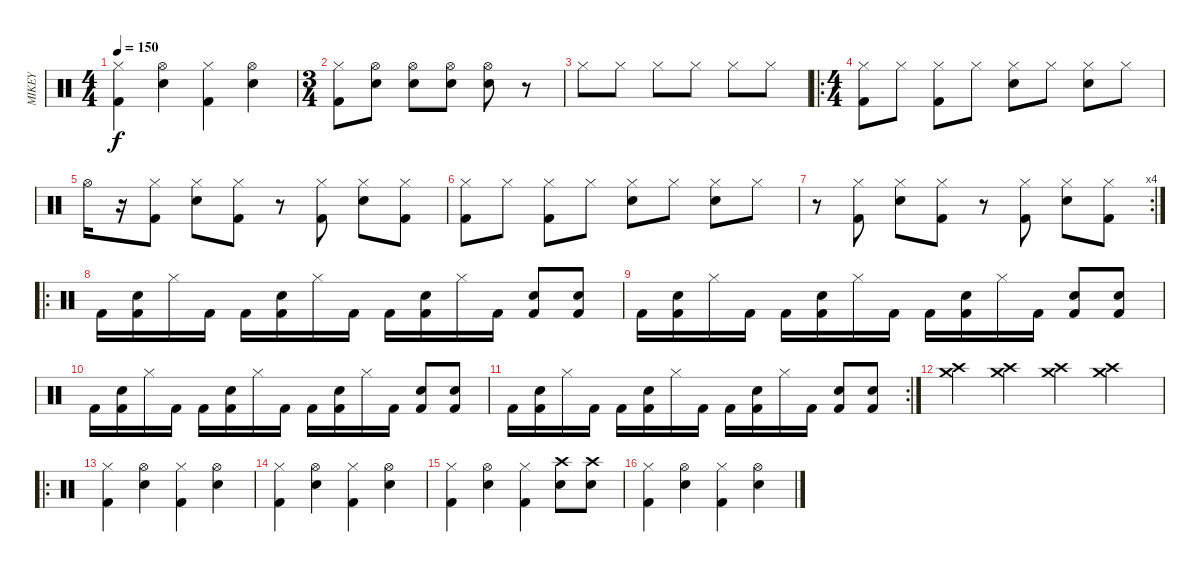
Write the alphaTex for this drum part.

\track ("MIKEY" "MIKEY") {instrument percussion}
\staff {score}
\articulation defaults
\ts (4 4)
\tempo 150
\clef neutral
\ks c
("Hi-Hat (closed)" "Kick (hit) 2").4{dy f} ("Hi-Hat (open)" "Snare (hit) 2").4 ("Hi-Hat (closed)" "Kick (hit) 2").4 ("Hi-Hat (open)" "Snare (hit) 2").4 |
\ts (3 4)
("Hi-Hat (closed)" "Kick (hit) 2").8 ("Hi-Hat (open)" "Snare (hit) 2").8 ("Hi-Hat (open)" "Snare (hit) 2").8 ("Hi-Hat (open)" "Snare (hit) 2").8 ("Hi-Hat (open)" "Snare (hit) 2").8 r.8 |
"Hi-Hat (closed)".8 "Hi-Hat (closed)".8 "Hi-Hat (closed)".8 "Hi-Hat (closed)".8 "Hi-Hat (closed)".8 "Hi-Hat (closed)".8 |
\ro
\ts (4 4)
("Hi-Hat (closed)" "Kick (hit) 2").8 "Hi-Hat (closed)".8 ("Hi-Hat (closed)" "Kick (hit) 2").8 "Hi-Hat (closed)".8 ("Hi-Hat (closed)" "Snare (hit) 2").8 "Hi-Hat (closed)".8 ("Hi-Hat (closed)" "Snare (hit) 2").8 "Hi-Hat (closed)".8 |
"Hi-Hat (open)".16 r.16 ("Hi-Hat (closed)" "Kick (hit) 2").8 ("Hi-Hat (closed)" "Snare (hit) 2").8 ("Hi-Hat (closed)" "Kick (hit) 2").8 r.8 ("Hi-Hat (closed)" "Kick (hit) 2").8 ("Hi-Hat (closed)" "Snare (hit) 2").8 ("Hi-Hat (closed)" "Kick (hit) 2").8 |
("Hi-Hat (closed)" "Kick (hit) 2").8 "Hi-Hat (closed)".8 ("Hi-Hat (closed)" "Kick (hit) 2").8 "Hi-Hat (closed)".8 ("Hi-Hat (closed)" "Snare (hit) 2").8 "Hi-Hat (closed)".8 ("Hi-Hat (closed)" "Snare (hit) 2").8 "Hi-Hat (closed)".8 |
\rc 4
r.8 ("Hi-Hat (closed)" "Kick (hit) 2").8 ("Hi-Hat (closed)" "Snare (hit) 2").8 ("Hi-Hat (closed)" "Kick (hit) 2").8 r.8 ("Hi-Hat (closed)" "Kick (hit) 2").8 ("Hi-Hat (closed)" "Snare (hit) 2").8 ("Hi-Hat (closed)" "Kick (hit) 2").8 |
\ro "Kick (hit) 2".16
("Electric Snare (hit)" "Kick (hit) 2").16 "Hi-Hat (closed)".16 "Kick (hit) 2".16 "Kick (hit) 2".16 ("Electric Snare (hit)" "Kick (hit) 2").16 "Hi-Hat (closed)".16 "Kick (hit) 2".16 "Kick (hit) 2".16 ("Electric Snare (hit)" "Kick (hit) 2").16 "Hi-Hat (closed)".16 "Kick (hit) 2".16 ("Electric Snare (hit)" "Kick (hit) 2").8 ("Electric Snare (hit)" "Kick (hit) 2").8 |
"Kick (hit) 2".16 ("Electric Snare (hit)" "Kick (hit) 2").16 "Hi-Hat (closed)".16 "Kick (hit) 2".16 "Kick (hit) 2".16 ("Electric Snare (hit)" "Kick (hit) 2").16 "Hi-Hat (closed)".16 "Kick (hit) 2".16 "Kick (hit) 2".16 ("Electric Snare (hit)" "Kick (hit) 2").16 "Hi-Hat (closed)".16 "Kick (hit) 2".16 ("Electric Snare (hit)" "Kick (hit) 2").8 ("Electric Snare (hit)" "Kick (hit) 2").8 |
"Kick (hit) 2".16 ("Electric Snare (hit)" "Kick (hit) 2").16 "Hi-Hat (closed)".16 "Kick (hit) 2".16 "Kick (hit) 2".16 ("Electric Snare (hit)" "Kick (hit) 2").16 "Hi-Hat (closed)".16 "Kick (hit) 2".16 "Kick (hit) 2".16 ("Electric Snare (hit)" "Kick (hit) 2").16 "Hi-Hat (closed)".16 "Kick (hit) 2".16 ("Electric Snare (hit)" "Kick (hit) 2").8 ("Electric Snare (hit)" "Kick (hit) 2").8 |
\rc 2 "Kick (hit) 2".16
("Electric Snare (hit)" "Kick (hit) 2").16 "Hi-Hat (closed)".16 "Kick (hit) 2".16 "Kick (hit) 2".16 ("Electric Snare (hit)" "Kick (hit) 2").16 "Hi-Hat (closed)".16 "Kick (hit) 2".16 "Kick (hit) 2".16 ("Electric Snare (hit)" "Kick (hit) 2").16 "Hi-Hat (closed)".16 "Kick (hit) 2".16 ("Electric Snare (hit)" "Kick (hit) 2").8 ("Electric Snare (hit)" "Kick (hit) 2").8 |
("Crash medium (hit)" "Crash high (hit)").4 ("Crash medium (hit)" "Crash high (hit)").4 ("Crash medium (hit)" "Crash high (hit)").4 ("Crash medium (hit)" "Crash high (hit)").4 |
\ro
("Hi-Hat (closed)" "Kick (hit) 2").4 ("Hi-Hat (open)" "Snare (hit) 2").4 ("Hi-Hat (closed)" "Kick (hit) 2").4 ("Hi-Hat (open)" "Snare (hit) 2").4 |
("Hi-Hat (closed)" "Kick (hit) 2").4 ("Hi-Hat (open)" "Snare (hit) 2").4 ("Hi-Hat (closed)" "Kick (hit) 2").4 ("Hi-Hat (open)" "Snare (hit) 2").4 |
("Hi-Hat (closed)" "Kick (hit) 2").4 ("Hi-Hat (open)" "Snare (hit) 2").4 ("Hi-Hat (closed)" "Kick (hit) 2").4 ("Crash high (hit)" "Snare (hit) 2").8 ("Crash high (hit)" "Snare (hit) 2").8 |
("Hi-Hat (closed)" "Kick (hit) 2").4 ("Hi-Hat (open)" "Snare (hit) 2").4 ("Hi-Hat (closed)" "Kick (hit) 2").4 ("Hi-Hat (open)" "Snare (hit) 2").4
